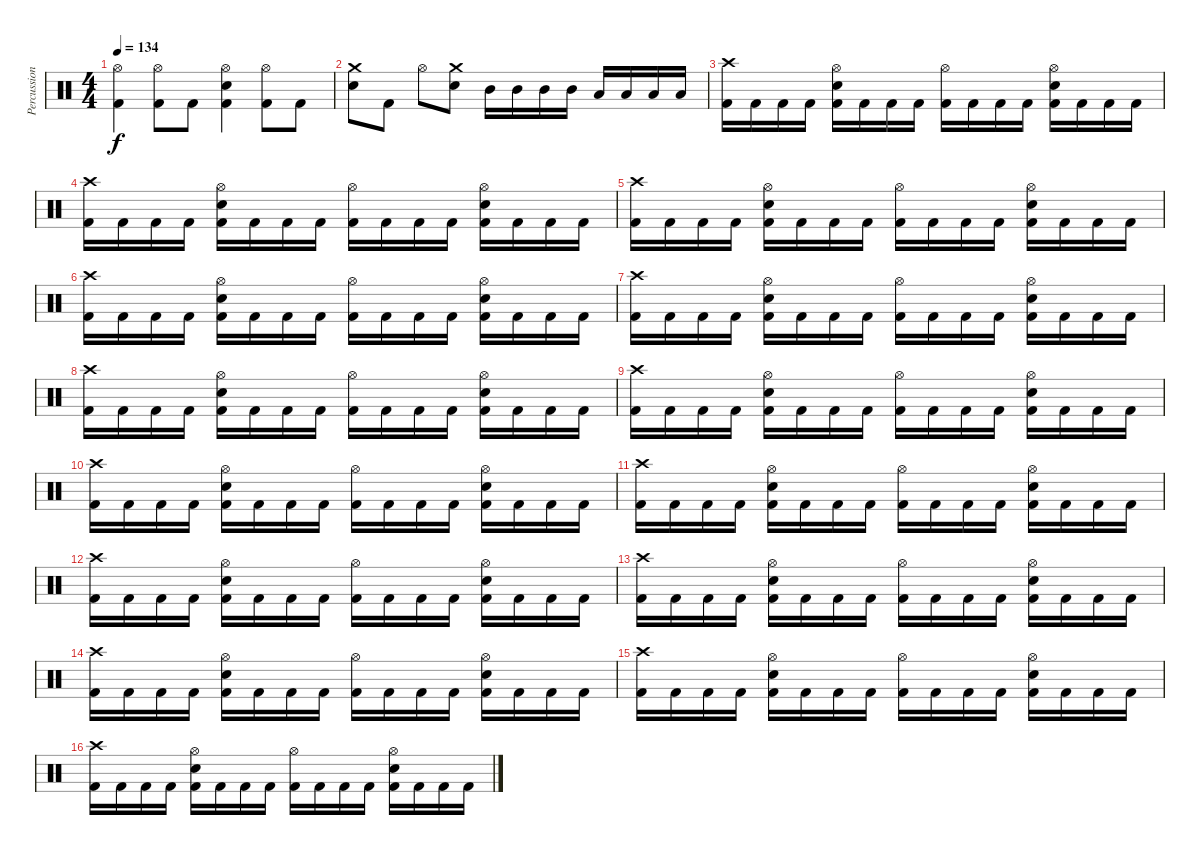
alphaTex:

\track ("Percussion" "Percussion") {instrument percussion}
\staff {score}
\articulation defaults
\ts (4 4)
\tempo 134
\clef neutral
\ks c
("Hi-Hat (open)" "Kick (hit) 2").4{dy f} ("Hi-Hat (open)" "Kick (hit) 2").8 "Kick (hit) 2".8 ("Hi-Hat (open)" "Snare (hit) 2" "Kick (hit) 2").4 ("Hi-Hat (open)" "Kick (hit) 2").8 "Kick (hit) 2".8 |
("Crash medium (hit)" "Snare (hit) 2").8 "Kick (hit) 2".8 "Hi-Hat (open)".8 ("Crash medium (hit)" "Snare (hit) 2").8 "Mid Tom (hit)".16 "Mid Tom (hit)".16 "Mid Tom (hit)".16 "Mid Tom (hit)".16 "Low Tom (hit)".16 "Low Tom (hit)".16 "Low Tom (hit)".16 "Low Tom (hit)".16 |
("Crash high (hit)" "Kick (hit) 2").16 "Kick (hit) 2".16 "Kick (hit) 2".16 "Kick (hit) 2".16 ("Snare (hit) 2" "Kick (hit) 2" "Hi-Hat (open)").16 "Kick (hit) 2".16 "Kick (hit) 2".16 "Kick (hit) 2".16 ("Kick (hit) 2" "Hi-Hat (open)").16 "Kick (hit) 2".16 "Kick (hit) 2".16 "Kick (hit) 2".16 ("Snare (hit) 2" "Kick (hit) 2" "Hi-Hat (open)").16 "Kick (hit) 2".16 "Kick (hit) 2".16 "Kick (hit) 2".16 |
("Crash high (hit)" "Kick (hit) 2").16 "Kick (hit) 2".16 "Kick (hit) 2".16 "Kick (hit) 2".16 ("Snare (hit) 2" "Kick (hit) 2" "Hi-Hat (open)").16 "Kick (hit) 2".16 "Kick (hit) 2".16 "Kick (hit) 2".16 ("Kick (hit) 2" "Hi-Hat (open)").16 "Kick (hit) 2".16 "Kick (hit) 2".16 "Kick (hit) 2".16 ("Snare (hit) 2" "Kick (hit) 2" "Hi-Hat (open)").16 "Kick (hit) 2".16 "Kick (hit) 2".16 "Kick (hit) 2".16 |
("Crash high (hit)" "Kick (hit) 2").16 "Kick (hit) 2".16 "Kick (hit) 2".16 "Kick (hit) 2".16 ("Snare (hit) 2" "Kick (hit) 2" "Hi-Hat (open)").16 "Kick (hit) 2".16 "Kick (hit) 2".16 "Kick (hit) 2".16 ("Kick (hit) 2" "Hi-Hat (open)").16 "Kick (hit) 2".16 "Kick (hit) 2".16 "Kick (hit) 2".16 ("Snare (hit) 2" "Kick (hit) 2" "Hi-Hat (open)").16 "Kick (hit) 2".16 "Kick (hit) 2".16 "Kick (hit) 2".16 |
("Crash high (hit)" "Kick (hit) 2").16 "Kick (hit) 2".16 "Kick (hit) 2".16 "Kick (hit) 2".16 ("Snare (hit) 2" "Kick (hit) 2" "Hi-Hat (open)").16 "Kick (hit) 2".16 "Kick (hit) 2".16 "Kick (hit) 2".16 ("Kick (hit) 2" "Hi-Hat (open)").16 "Kick (hit) 2".16 "Kick (hit) 2".16 "Kick (hit) 2".16 ("Snare (hit) 2" "Kick (hit) 2" "Hi-Hat (open)").16 "Kick (hit) 2".16 "Kick (hit) 2".16 "Kick (hit) 2".16 |
("Crash high (hit)" "Kick (hit) 2").16 "Kick (hit) 2".16 "Kick (hit) 2".16 "Kick (hit) 2".16 ("Snare (hit) 2" "Kick (hit) 2" "Hi-Hat (open)").16 "Kick (hit) 2".16 "Kick (hit) 2".16 "Kick (hit) 2".16 ("Kick (hit) 2" "Hi-Hat (open)").16 "Kick (hit) 2".16 "Kick (hit) 2".16 "Kick (hit) 2".16 ("Snare (hit) 2" "Kick (hit) 2" "Hi-Hat (open)").16 "Kick (hit) 2".16 "Kick (hit) 2".16 "Kick (hit) 2".16 |
("Crash high (hit)" "Kick (hit) 2").16 "Kick (hit) 2".16 "Kick (hit) 2".16 "Kick (hit) 2".16 ("Snare (hit) 2" "Kick (hit) 2" "Hi-Hat (open)").16 "Kick (hit) 2".16 "Kick (hit) 2".16 "Kick (hit) 2".16 ("Kick (hit) 2" "Hi-Hat (open)").16 "Kick (hit) 2".16 "Kick (hit) 2".16 "Kick (hit) 2".16 ("Snare (hit) 2" "Kick (hit) 2" "Hi-Hat (open)").16 "Kick (hit) 2".16 "Kick (hit) 2".16 "Kick (hit) 2".16 |
("Crash high (hit)" "Kick (hit) 2").16 "Kick (hit) 2".16 "Kick (hit) 2".16 "Kick (hit) 2".16 ("Snare (hit) 2" "Kick (hit) 2" "Hi-Hat (open)").16 "Kick (hit) 2".16 "Kick (hit) 2".16 "Kick (hit) 2".16 ("Kick (hit) 2" "Hi-Hat (open)").16 "Kick (hit) 2".16 "Kick (hit) 2".16 "Kick (hit) 2".16 ("Snare (hit) 2" "Kick (hit) 2" "Hi-Hat (open)").16 "Kick (hit) 2".16 "Kick (hit) 2".16 "Kick (hit) 2".16 |
("Crash high (hit)" "Kick (hit) 2").16 "Kick (hit) 2".16 "Kick (hit) 2".16 "Kick (hit) 2".16 ("Snare (hit) 2" "Kick (hit) 2" "Hi-Hat (open)").16 "Kick (hit) 2".16 "Kick (hit) 2".16 "Kick (hit) 2".16 ("Kick (hit) 2" "Hi-Hat (open)").16 "Kick (hit) 2".16 "Kick (hit) 2".16 "Kick (hit) 2".16 ("Snare (hit) 2" "Kick (hit) 2" "Hi-Hat (open)").16 "Kick (hit) 2".16 "Kick (hit) 2".16 "Kick (hit) 2".16 |
("Crash high (hit)" "Kick (hit) 2").16 "Kick (hit) 2".16 "Kick (hit) 2".16 "Kick (hit) 2".16 ("Snare (hit) 2" "Kick (hit) 2" "Hi-Hat (open)").16 "Kick (hit) 2".16 "Kick (hit) 2".16 "Kick (hit) 2".16 ("Kick (hit) 2" "Hi-Hat (open)").16 "Kick (hit) 2".16 "Kick (hit) 2".16 "Kick (hit) 2".16 ("Snare (hit) 2" "Kick (hit) 2" "Hi-Hat (open)").16 "Kick (hit) 2".16 "Kick (hit) 2".16 "Kick (hit) 2".16 |
("Crash high (hit)" "Kick (hit) 2").16 "Kick (hit) 2".16 "Kick (hit) 2".16 "Kick (hit) 2".16 ("Snare (hit) 2" "Kick (hit) 2" "Hi-Hat (open)").16 "Kick (hit) 2".16 "Kick (hit) 2".16 "Kick (hit) 2".16 ("Kick (hit) 2" "Hi-Hat (open)").16 "Kick (hit) 2".16 "Kick (hit) 2".16 "Kick (hit) 2".16 ("Snare (hit) 2" "Kick (hit) 2" "Hi-Hat (open)").16 "Kick (hit) 2".16 "Kick (hit) 2".16 "Kick (hit) 2".16 |
("Crash high (hit)" "Kick (hit) 2").16 "Kick (hit) 2".16 "Kick (hit) 2".16 "Kick (hit) 2".16 ("Snare (hit) 2" "Kick (hit) 2" "Hi-Hat (open)").16 "Kick (hit) 2".16 "Kick (hit) 2".16 "Kick (hit) 2".16 ("Kick (hit) 2" "Hi-Hat (open)").16 "Kick (hit) 2".16 "Kick (hit) 2".16 "Kick (hit) 2".16 ("Snare (hit) 2" "Kick (hit) 2" "Hi-Hat (open)").16 "Kick (hit) 2".16 "Kick (hit) 2".16 "Kick (hit) 2".16 |
("Crash high (hit)" "Kick (hit) 2").16 "Kick (hit) 2".16 "Kick (hit) 2".16 "Kick (hit) 2".16 ("Snare (hit) 2" "Kick (hit) 2" "Hi-Hat (open)").16 "Kick (hit) 2".16 "Kick (hit) 2".16 "Kick (hit) 2".16 ("Kick (hit) 2" "Hi-Hat (open)").16 "Kick (hit) 2".16 "Kick (hit) 2".16 "Kick (hit) 2".16 ("Snare (hit) 2" "Kick (hit) 2" "Hi-Hat (open)").16 "Kick (hit) 2".16 "Kick (hit) 2".16 "Kick (hit) 2".16 |
("Crash high (hit)" "Kick (hit) 2").16 "Kick (hit) 2".16 "Kick (hit) 2".16 "Kick (hit) 2".16 ("Snare (hit) 2" "Kick (hit) 2" "Hi-Hat (open)").16 "Kick (hit) 2".16 "Kick (hit) 2".16 "Kick (hit) 2".16 ("Kick (hit) 2" "Hi-Hat (open)").16 "Kick (hit) 2".16 "Kick (hit) 2".16 "Kick (hit) 2".16 ("Snare (hit) 2" "Kick (hit) 2" "Hi-Hat (open)").16 "Kick (hit) 2".16 "Kick (hit) 2".16 "Kick (hit) 2".16 |
("Crash high (hit)" "Kick (hit) 2").16 "Kick (hit) 2".16 "Kick (hit) 2".16 "Kick (hit) 2".16 ("Snare (hit) 2" "Kick (hit) 2" "Hi-Hat (open)").16 "Kick (hit) 2".16 "Kick (hit) 2".16 "Kick (hit) 2".16 ("Kick (hit) 2" "Hi-Hat (open)").16 "Kick (hit) 2".16 "Kick (hit) 2".16 "Kick (hit) 2".16 ("Snare (hit) 2" "Kick (hit) 2" "Hi-Hat (open)").16 "Kick (hit) 2".16 "Kick (hit) 2".16 "Kick (hit) 2".16
